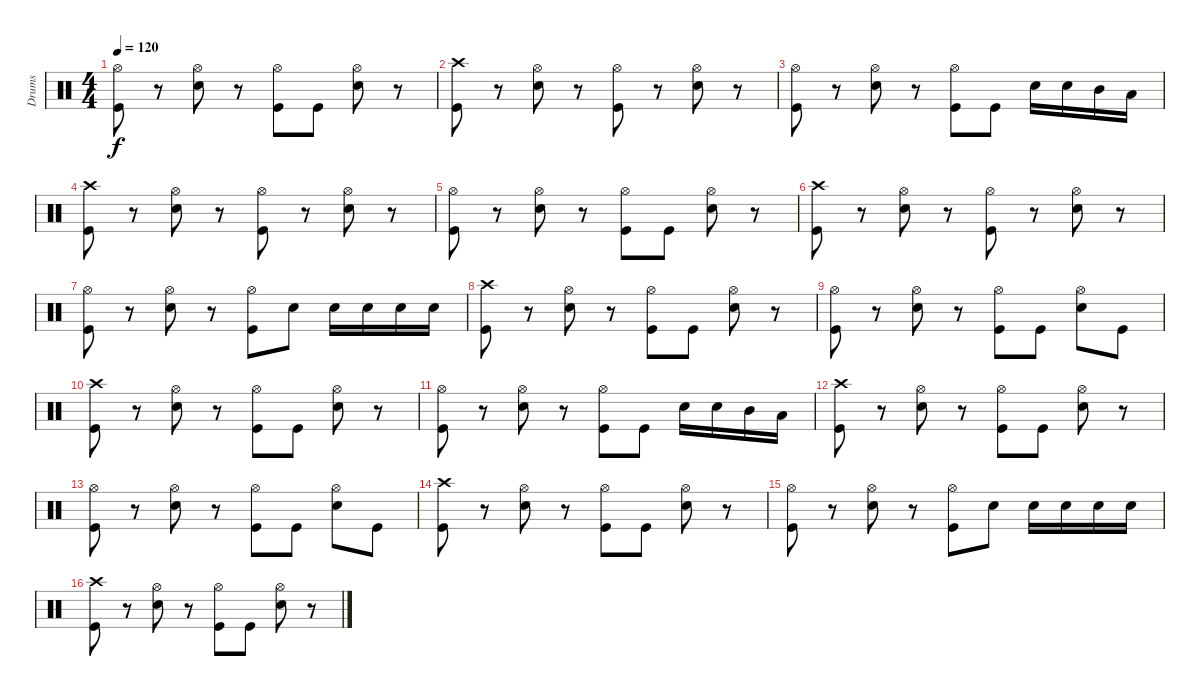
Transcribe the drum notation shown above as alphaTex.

\track ("Drums" "Drums") {instrument percussion}
\staff {score}
\articulation defaults
\ts (4 4)
\tempo 120
\clef neutral
\ks c
("Hi-Hat (open)" "Kick (hit)").8{dy f} r.8 ("Hi-Hat (open)" "Snare (hit) 2").8 r.8 ("Hi-Hat (open)" "Kick (hit)").8 "Kick (hit)".8 ("Hi-Hat (open)" "Snare (hit) 2").8 r.8 |
("Crash high (hit)" "Kick (hit)").8 r.8 ("Hi-Hat (open)" "Snare (hit) 2").8 r.8 ("Hi-Hat (open)" "Kick (hit)").8 r.8 ("Hi-Hat (open)" "Snare (hit) 2").8 r.8 |
("Hi-Hat (open)" "Kick (hit)").8 r.8 ("Hi-Hat (open)" "Snare (hit) 2").8 r.8 ("Hi-Hat (open)" "Kick (hit)").8 "Kick (hit)".8 "Snare (hit) 2".16 "Snare (hit) 2".16 "Mid Tom (hit)".16 "Low Tom (hit)".16 |
("Crash high (hit)" "Kick (hit)").8 r.8 ("Hi-Hat (open)" "Snare (hit) 2").8 r.8 ("Hi-Hat (open)" "Kick (hit)").8 r.8 ("Hi-Hat (open)" "Snare (hit) 2").8 r.8 |
("Hi-Hat (open)" "Kick (hit)").8 r.8 ("Hi-Hat (open)" "Snare (hit) 2").8 r.8 ("Hi-Hat (open)" "Kick (hit)").8 "Kick (hit)".8 ("Hi-Hat (open)" "Snare (hit) 2").8 r.8 |
("Crash high (hit)" "Kick (hit)").8 r.8 ("Hi-Hat (open)" "Snare (hit) 2").8 r.8 ("Hi-Hat (open)" "Kick (hit)").8 r.8 ("Hi-Hat (open)" "Snare (hit) 2").8 r.8 |
("Hi-Hat (open)" "Kick (hit)").8 r.8 ("Hi-Hat (open)" "Snare (hit) 2").8 r.8 ("Kick (hit)" "Hi-Hat (open)").8 "Snare (hit) 2".8 "Snare (hit) 2".16 "Snare (hit) 2".16 "Snare (hit) 2".16 "Snare (hit) 2".16 |
("Crash high (hit)" "Kick (hit)").8 r.8 ("Hi-Hat (open)" "Snare (hit) 2").8 r.8 ("Hi-Hat (open)" "Kick (hit)").8 "Kick (hit)".8 ("Hi-Hat (open)" "Snare (hit) 2").8 r.8 |
("Hi-Hat (open)" "Kick (hit)").8 r.8 ("Hi-Hat (open)" "Snare (hit) 2").8 r.8 ("Hi-Hat (open)" "Kick (hit)").8 "Kick (hit)".8 ("Hi-Hat (open)" "Snare (hit) 2").8 "Kick (hit)".8 |
("Crash high (hit)" "Kick (hit)").8 r.8 ("Hi-Hat (open)" "Snare (hit) 2").8 r.8 ("Hi-Hat (open)" "Kick (hit)").8 "Kick (hit)".8 ("Hi-Hat (open)" "Snare (hit) 2").8 r.8 |
("Hi-Hat (open)" "Kick (hit)").8 r.8 ("Hi-Hat (open)" "Snare (hit) 2").8 r.8 ("Hi-Hat (open)" "Kick (hit)").8 "Kick (hit)".8 "Snare (hit) 2".16 "Snare (hit) 2".16 "Mid Tom (hit)".16 "Low Tom (hit)".16 |
("Crash high (hit)" "Kick (hit)").8 r.8 ("Hi-Hat (open)" "Snare (hit) 2").8 r.8 ("Hi-Hat (open)" "Kick (hit)").8 "Kick (hit)".8 ("Hi-Hat (open)" "Snare (hit) 2").8 r.8 |
("Hi-Hat (open)" "Kick (hit)").8 r.8 ("Hi-Hat (open)" "Snare (hit) 2").8 r.8 ("Hi-Hat (open)" "Kick (hit)").8 "Kick (hit)".8 ("Hi-Hat (open)" "Snare (hit) 2").8 "Kick (hit)".8 |
("Crash high (hit)" "Kick (hit)").8 r.8 ("Hi-Hat (open)" "Snare (hit) 2").8 r.8 ("Hi-Hat (open)" "Kick (hit)").8 "Kick (hit)".8 ("Hi-Hat (open)" "Snare (hit) 2").8 r.8 |
("Hi-Hat (open)" "Kick (hit)").8 r.8 ("Hi-Hat (open)" "Snare (hit) 2").8 r.8 ("Kick (hit)" "Hi-Hat (open)").8 "Snare (hit) 2".8 "Snare (hit) 2".16 "Snare (hit) 2".16 "Snare (hit) 2".16 "Snare (hit) 2".16 |
("Crash high (hit)" "Kick (hit)").8 r.8 ("Hi-Hat (open)" "Snare (hit) 2").8 r.8 ("Hi-Hat (open)" "Kick (hit)").8 "Kick (hit)".8 ("Hi-Hat (open)" "Snare (hit) 2").8 r.8
